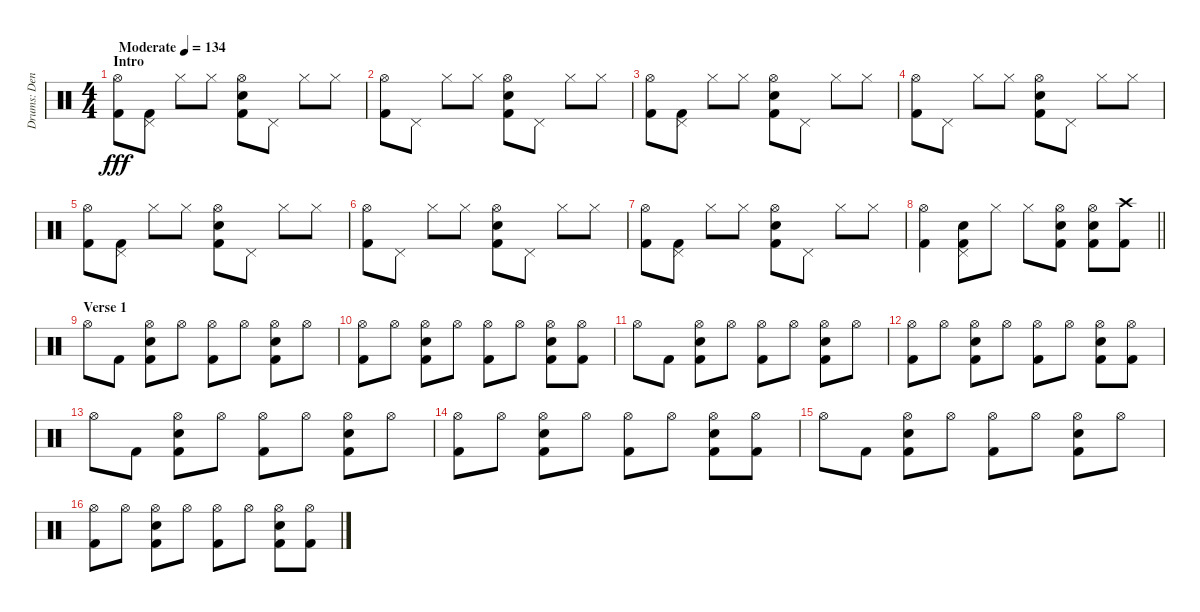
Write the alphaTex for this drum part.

\track ("Drums: Denny" "Drums: Den") {instrument percussion}
\staff {score}
\articulation defaults
\ts (4 4)
\section ("" "Intro")
\tempo (134 "Moderate")
\clef neutral
\ks c
("Hi-Hat (open)" "Kick (hit) 2").8{dy fff} ("Pedal Hi-Hat (hit)" "Kick (hit) 2").8 "Hi-Hat (closed)".8 "Hi-Hat (closed)".8 ("Hi-Hat (open)" "Snare (hit) 2" "Kick (hit) 2").8 "Pedal Hi-Hat (hit)".8 "Hi-Hat (closed)".8 "Hi-Hat (closed)".8 |
("Hi-Hat (open)" "Kick (hit) 2").8 "Pedal Hi-Hat (hit)".8 "Hi-Hat (closed)".8 "Hi-Hat (closed)".8 ("Hi-Hat (open)" "Snare (hit) 2" "Kick (hit) 2").8 "Pedal Hi-Hat (hit)".8 "Hi-Hat (closed)".8 "Hi-Hat (closed)".8 |
("Hi-Hat (open)" "Kick (hit) 2").8 ("Pedal Hi-Hat (hit)" "Kick (hit) 2").8 "Hi-Hat (closed)".8 "Hi-Hat (closed)".8 ("Hi-Hat (open)" "Snare (hit) 2" "Kick (hit) 2").8 "Pedal Hi-Hat (hit)".8 "Hi-Hat (closed)".8 "Hi-Hat (closed)".8 |
("Hi-Hat (open)" "Kick (hit) 2").8 "Pedal Hi-Hat (hit)".8 "Hi-Hat (closed)".8 "Hi-Hat (closed)".8 ("Hi-Hat (open)" "Snare (hit) 2" "Kick (hit) 2").8 "Pedal Hi-Hat (hit)".8 "Hi-Hat (closed)".8 "Hi-Hat (closed)".8 |
("Hi-Hat (open)" "Kick (hit) 2").8 ("Pedal Hi-Hat (hit)" "Kick (hit) 2").8 "Hi-Hat (closed)".8 "Hi-Hat (closed)".8 ("Hi-Hat (open)" "Snare (hit) 2" "Kick (hit) 2").8 "Pedal Hi-Hat (hit)".8 "Hi-Hat (closed)".8 "Hi-Hat (closed)".8 |
("Hi-Hat (open)" "Kick (hit) 2").8 "Pedal Hi-Hat (hit)".8 "Hi-Hat (closed)".8 "Hi-Hat (closed)".8 ("Hi-Hat (open)" "Snare (hit) 2" "Kick (hit) 2").8 "Pedal Hi-Hat (hit)".8 "Hi-Hat (closed)".8 "Hi-Hat (closed)".8 |
("Hi-Hat (open)" "Kick (hit) 2").8 ("Pedal Hi-Hat (hit)" "Kick (hit) 2").8 "Hi-Hat (closed)".8 "Hi-Hat (closed)".8 ("Hi-Hat (open)" "Snare (hit) 2" "Kick (hit) 2").8 "Pedal Hi-Hat (hit)".8 "Hi-Hat (closed)".8 "Hi-Hat (closed)".8 |
\barLineRight lightlight
("Hi-Hat (open)" "Kick (hit) 2").4 ("Pedal Hi-Hat (hit)" "Snare (hit) 2" "Kick (hit) 2").8 "Hi-Hat (closed)".8 "Hi-Hat (closed)".8 ("Hi-Hat (open)" "Snare (hit) 2" "Kick (hit) 2").8 ("Hi-Hat (open)" "Snare (hit) 2" "Kick (hit) 2").8 ("Crash high (hit)" "Kick (hit) 2").8 |
\section ("" "Verse 1")
"Hi-Hat (open)".8 "Kick (hit) 2".8 ("Hi-Hat (open)" "Snare (hit) 2" "Kick (hit) 2").8 "Hi-Hat (open)".8 ("Hi-Hat (open)" "Kick (hit) 2").8 "Hi-Hat (open)".8 ("Hi-Hat (open)" "Snare (hit) 2" "Kick (hit) 2").8 "Hi-Hat (open)".8 |
("Hi-Hat (open)" "Kick (hit) 2").8 "Hi-Hat (open)".8 ("Hi-Hat (open)" "Snare (hit) 2" "Kick (hit) 2").8 "Hi-Hat (open)".8 ("Hi-Hat (open)" "Kick (hit) 2").8 "Hi-Hat (open)".8 ("Hi-Hat (open)" "Snare (hit) 2" "Kick (hit) 2").8 ("Hi-Hat (open)" "Kick (hit) 2").8 |
"Hi-Hat (open)".8 "Kick (hit) 2".8 ("Hi-Hat (open)" "Snare (hit) 2" "Kick (hit) 2").8 "Hi-Hat (open)".8 ("Hi-Hat (open)" "Kick (hit) 2").8 "Hi-Hat (open)".8 ("Hi-Hat (open)" "Snare (hit) 2" "Kick (hit) 2").8 "Hi-Hat (open)".8 |
("Hi-Hat (open)" "Kick (hit) 2").8 "Hi-Hat (open)".8 ("Hi-Hat (open)" "Snare (hit) 2" "Kick (hit) 2").8 "Hi-Hat (open)".8 ("Hi-Hat (open)" "Kick (hit) 2").8 "Hi-Hat (open)".8 ("Hi-Hat (open)" "Snare (hit) 2" "Kick (hit) 2").8 ("Hi-Hat (open)" "Kick (hit) 2").8 |
"Hi-Hat (open)".8 "Kick (hit) 2".8 ("Hi-Hat (open)" "Snare (hit) 2" "Kick (hit) 2").8 "Hi-Hat (open)".8 ("Hi-Hat (open)" "Kick (hit) 2").8 "Hi-Hat (open)".8 ("Hi-Hat (open)" "Snare (hit) 2" "Kick (hit) 2").8 "Hi-Hat (open)".8 |
("Hi-Hat (open)" "Kick (hit) 2").8 "Hi-Hat (open)".8 ("Hi-Hat (open)" "Snare (hit) 2" "Kick (hit) 2").8 "Hi-Hat (open)".8 ("Hi-Hat (open)" "Kick (hit) 2").8 "Hi-Hat (open)".8 ("Hi-Hat (open)" "Snare (hit) 2" "Kick (hit) 2").8 ("Hi-Hat (open)" "Kick (hit) 2").8 |
"Hi-Hat (open)".8 "Kick (hit) 2".8 ("Hi-Hat (open)" "Snare (hit) 2" "Kick (hit) 2").8 "Hi-Hat (open)".8 ("Hi-Hat (open)" "Kick (hit) 2").8 "Hi-Hat (open)".8 ("Hi-Hat (open)" "Snare (hit) 2" "Kick (hit) 2").8 "Hi-Hat (open)".8 |
("Hi-Hat (open)" "Kick (hit) 2").8 "Hi-Hat (open)".8 ("Hi-Hat (open)" "Snare (hit) 2" "Kick (hit) 2").8 "Hi-Hat (open)".8 ("Hi-Hat (open)" "Kick (hit) 2").8 "Hi-Hat (open)".8 ("Hi-Hat (open)" "Snare (hit) 2" "Kick (hit) 2").8 ("Hi-Hat (open)" "Kick (hit) 2").8
